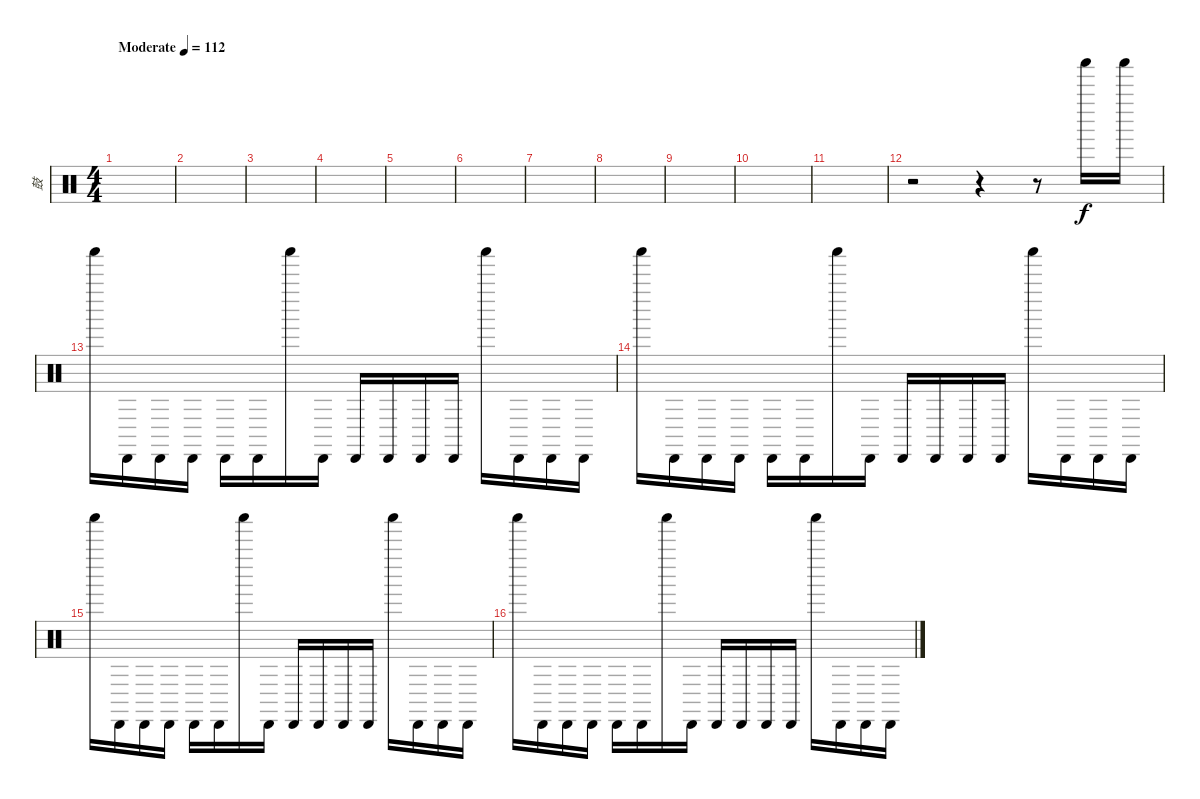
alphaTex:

\track ("鼓" "鼓") {instrument percussion}
\staff {score}
\articulation defaults
\ts (4 4)
\tempo (112 "Moderate")
\clef neutral
\ks c
|
|
|
|
|
|
|
|
|
|
|
r.2 r.4 r.8 "Shaker (hit)".16 "Shaker (hit)".16 |
"Shaker (hit)".16 "Cabasa (hit)".16 "Cabasa (hit)".16 "Cabasa (hit)".16 "Cabasa (hit)".16 "Cabasa (hit)".16 "Shaker (hit)".16 "Cabasa (hit)".16 "Cabasa (hit)".16 "Cabasa (hit)".16 "Cabasa (hit)".16 "Cabasa (hit)".16 "Shaker (hit)".16 "Cabasa (hit)".16 "Cabasa (hit)".16 "Cabasa (hit)".16 |
"Shaker (hit)".16 "Cabasa (hit)".16 "Cabasa (hit)".16 "Cabasa (hit)".16 "Cabasa (hit)".16 "Cabasa (hit)".16 "Shaker (hit)".16 "Cabasa (hit)".16 "Cabasa (hit)".16 "Cabasa (hit)".16 "Cabasa (hit)".16 "Cabasa (hit)".16 "Shaker (hit)".16 "Cabasa (hit)".16 "Cabasa (hit)".16 "Cabasa (hit)".16 |
"Shaker (hit)".16 "Cabasa (hit)".16 "Cabasa (hit)".16 "Cabasa (hit)".16 "Cabasa (hit)".16 "Cabasa (hit)".16 "Shaker (hit)".16 "Cabasa (hit)".16 "Cabasa (hit)".16 "Cabasa (hit)".16 "Cabasa (hit)".16 "Cabasa (hit)".16 "Shaker (hit)".16 "Cabasa (hit)".16 "Cabasa (hit)".16 "Cabasa (hit)".16 |
"Shaker (hit)".16 "Cabasa (hit)".16 "Cabasa (hit)".16 "Cabasa (hit)".16 "Cabasa (hit)".16 "Cabasa (hit)".16 "Shaker (hit)".16 "Cabasa (hit)".16 "Cabasa (hit)".16 "Cabasa (hit)".16 "Cabasa (hit)".16 "Cabasa (hit)".16 "Shaker (hit)".16 "Cabasa (hit)".16 "Cabasa (hit)".16 "Cabasa (hit)".16
